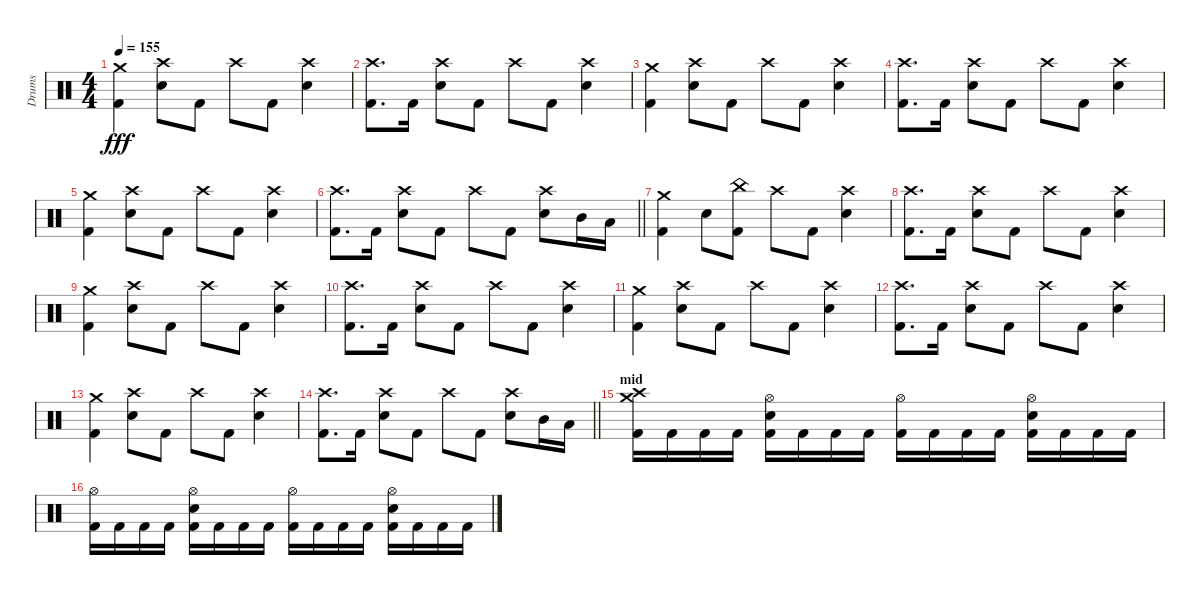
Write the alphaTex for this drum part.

\track ("Drums" "Drums") {instrument percussion}
\staff {score}
\articulation defaults
\ts (4 4)
\tempo 155
\clef neutral
\ks c
("Crash medium (hit)" "Kick (hit) 2").4{dy fff} ("Crash high (hit)" "Snare (hit) 2").8 "Kick (hit) 2".8 "Crash high (hit)".8 "Kick (hit) 2".8 ("Crash high (hit)" "Snare (hit) 2").4 |
("Crash high (hit)" "Kick (hit) 2").8{d} "Kick (hit) 2".16 ("Crash high (hit)" "Snare (hit) 2").8 "Kick (hit) 2".8 "Crash high (hit)".8 "Kick (hit) 2".8 ("Crash high (hit)" "Snare (hit) 2").4 |
("Crash medium (hit)" "Kick (hit) 2").4 ("Crash high (hit)" "Snare (hit) 2").8 "Kick (hit) 2".8 "Crash high (hit)".8 "Kick (hit) 2".8 ("Crash high (hit)" "Snare (hit) 2").4 |
("Crash high (hit)" "Kick (hit) 2").8{d} "Kick (hit) 2".16 ("Crash high (hit)" "Snare (hit) 2").8 "Kick (hit) 2".8 "Crash high (hit)".8 "Kick (hit) 2".8 ("Crash high (hit)" "Snare (hit) 2").4 |
("Crash medium (hit)" "Kick (hit) 2").4 ("Crash high (hit)" "Snare (hit) 2").8 "Kick (hit) 2".8 "Crash high (hit)".8 "Kick (hit) 2".8 ("Crash high (hit)" "Snare (hit) 2").4 |
\barLineRight lightlight
("Crash high (hit)" "Kick (hit) 2").8{d} "Kick (hit) 2".16 ("Crash high (hit)" "Snare (hit) 2").8 "Kick (hit) 2".8 "Crash high (hit)".8 "Kick (hit) 2".8 ("Crash high (hit)" "Snare (hit) 2").8 "Mid Tom (hit)".16 "Low Tom (hit)".16 |
("Crash medium (hit)" "Kick (hit) 2").4 "Snare (hit) 2".8 ("China (hit)" "Kick (hit) 2").8 "Crash high (hit)".8 "Kick (hit) 2".8 ("Crash high (hit)" "Snare (hit) 2").4 |
("Crash high (hit)" "Kick (hit) 2").8{d} "Kick (hit) 2".16 ("Crash high (hit)" "Snare (hit) 2").8 "Kick (hit) 2".8 "Crash high (hit)".8 "Kick (hit) 2".8 ("Crash high (hit)" "Snare (hit) 2").4 |
("Crash medium (hit)" "Kick (hit) 2").4 ("Crash high (hit)" "Snare (hit) 2").8 "Kick (hit) 2".8 "Crash high (hit)".8 "Kick (hit) 2".8 ("Crash high (hit)" "Snare (hit) 2").4 |
("Crash high (hit)" "Kick (hit) 2").8{d} "Kick (hit) 2".16 ("Crash high (hit)" "Snare (hit) 2").8 "Kick (hit) 2".8 "Crash high (hit)".8 "Kick (hit) 2".8 ("Crash high (hit)" "Snare (hit) 2").4 |
("Crash medium (hit)" "Kick (hit) 2").4 ("Crash high (hit)" "Snare (hit) 2").8 "Kick (hit) 2".8 "Crash high (hit)".8 "Kick (hit) 2".8 ("Crash high (hit)" "Snare (hit) 2").4 |
("Crash high (hit)" "Kick (hit) 2").8{d} "Kick (hit) 2".16 ("Crash high (hit)" "Snare (hit) 2").8 "Kick (hit) 2".8 "Crash high (hit)".8 "Kick (hit) 2".8 ("Crash high (hit)" "Snare (hit) 2").4 |
("Crash medium (hit)" "Kick (hit) 2").4 ("Crash high (hit)" "Snare (hit) 2").8 "Kick (hit) 2".8 "Crash high (hit)".8 "Kick (hit) 2".8 ("Crash high (hit)" "Snare (hit) 2").4 |
\barLineRight lightlight
("Crash high (hit)" "Kick (hit) 2").8{d} "Kick (hit) 2".16 ("Crash high (hit)" "Snare (hit) 2").8 "Kick (hit) 2".8 "Crash high (hit)".8 "Kick (hit) 2".8 ("Crash high (hit)" "Snare (hit) 2").8 "Mid Tom (hit)".16 "Low Tom (hit)".16 |
\section ("" "mid")
("Crash high (hit)" "Crash medium (hit)" "Kick (hit) 2").16 "Kick (hit) 2".16 "Kick (hit) 2".16 "Kick (hit) 2".16 ("Snare (hit) 2" "Hi-Hat (open)" "Kick (hit) 2").16 "Kick (hit) 2".16 "Kick (hit) 2".16 "Kick (hit) 2".16 ("Hi-Hat (open)" "Kick (hit) 2").16 "Kick (hit) 2".16 "Kick (hit) 2".16 "Kick (hit) 2".16 ("Snare (hit) 2" "Hi-Hat (open)" "Kick (hit) 2").16 "Kick (hit) 2".16 "Kick (hit) 2".16 "Kick (hit) 2".16 |
("Hi-Hat (open)" "Kick (hit) 2").16 "Kick (hit) 2".16 "Kick (hit) 2".16 "Kick (hit) 2".16 ("Snare (hit) 2" "Hi-Hat (open)" "Kick (hit) 2").16 "Kick (hit) 2".16 "Kick (hit) 2".16 "Kick (hit) 2".16 ("Hi-Hat (open)" "Kick (hit) 2").16 "Kick (hit) 2".16 "Kick (hit) 2".16 "Kick (hit) 2".16 ("Snare (hit) 2" "Hi-Hat (open)" "Kick (hit) 2").16 "Kick (hit) 2".16 "Kick (hit) 2".16 "Kick (hit) 2".16
